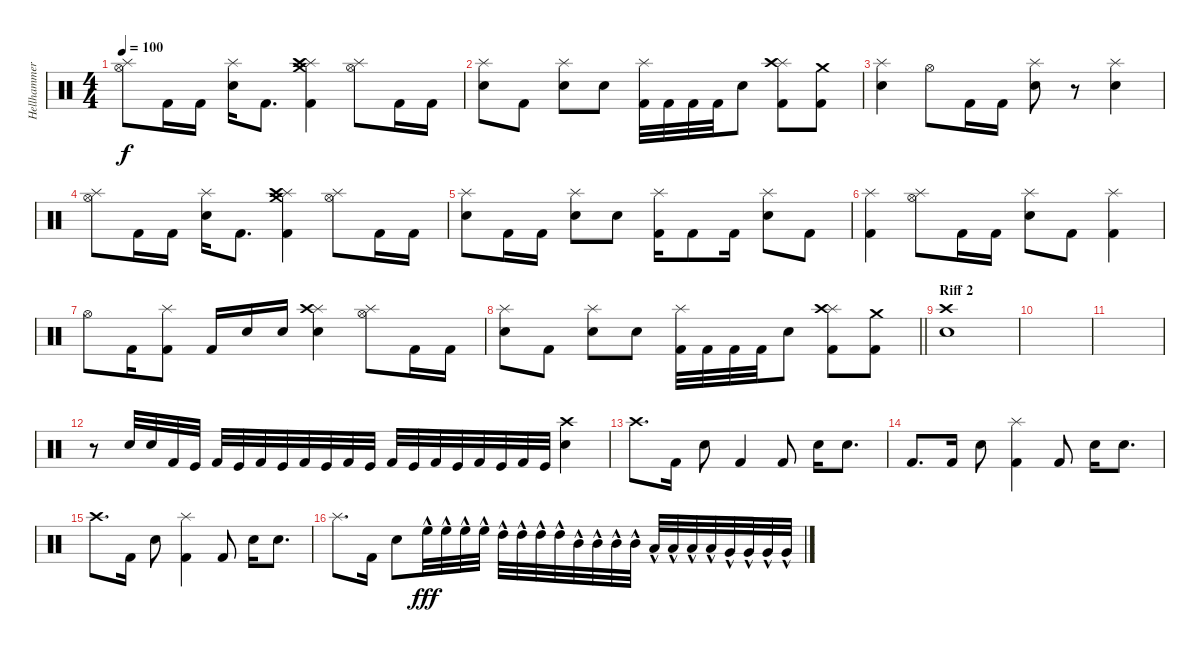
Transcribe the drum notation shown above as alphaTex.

\track ("Hellhammer" "Hellhammer") {instrument percussion}
\staff {score}
\articulation defaults
\ts (4 4)
\tempo 100
\clef neutral
\ks c
("Splash (hit)" "Hi-Hat (open)").8{dy f} "Kick (hit) 2".16 "Kick (hit) 2".16 ("Splash (hit)" "Snare (hit) 2").16 "Kick (hit) 2".8{d} ("Splash (hit)" "Crash medium (hit)" "Crash high (hit)" "Kick (hit) 2").4 ("Splash (hit)" "Hi-Hat (open)").8 "Kick (hit) 2".16 "Kick (hit) 2".16 |
("Splash (hit)" "Snare (hit) 2").8 "Kick (hit) 2".8 ("Splash (hit)" "Snare (hit) 2").8 "Snare (hit) 2".8 ("Splash (hit)" "Kick (hit) 2").32 "Kick (hit) 2".32 "Kick (hit) 2".32 "Kick (hit) 2".32 "Snare (hit) 2".8 ("Splash (hit)" "Crash high (hit)" "Kick (hit) 2").8 ("Crash medium (hit)" "Kick (hit) 2").8 |
("Splash (hit)" "Snare (hit) 2").4 "Hi-Hat (open)".8 "Kick (hit) 2".16 "Kick (hit) 2".16 ("Splash (hit)" "Snare (hit) 2").8 r.8 ("Splash (hit)" "Snare (hit) 2").4 |
("Splash (hit)" "Hi-Hat (open)").8 "Kick (hit) 2".16 "Kick (hit) 2".16 ("Splash (hit)" "Snare (hit) 2").16 "Kick (hit) 2".8{d} ("Splash (hit)" "Crash medium (hit)" "Crash high (hit)" "Kick (hit) 2").4 ("Splash (hit)" "Hi-Hat (open)").8 "Kick (hit) 2".16 "Kick (hit) 2".16 |
("Splash (hit)" "Snare (hit) 2").8 "Kick (hit) 2".16 "Kick (hit) 2".16 ("Splash (hit)" "Snare (hit) 2").8 "Snare (hit) 2".8 ("Splash (hit)" "Kick (hit) 2").16 "Kick (hit) 2".8 "Kick (hit) 2".16 ("Splash (hit)" "Snare (hit) 2").8 "Kick (hit) 2".8 |
("Splash (hit)" "Kick (hit) 2").4 ("Splash (hit)" "Hi-Hat (open)").8 "Kick (hit) 2".16 "Kick (hit) 2".16 ("Splash (hit)" "Snare (hit) 2").8 "Kick (hit) 2".8 ("Splash (hit)" "Kick (hit) 2").4 |
"Hi-Hat (open)".8 "Kick (hit) 2".16 ("Splash (hit)" "Kick (hit) 2").8 "Kick (hit) 2".16 "Snare (hit) 2".16 "Snare (hit) 2".16 ("Splash (hit)" "Crash high (hit)" "Snare (hit) 2").4 ("Splash (hit)" "Hi-Hat (open)").8 "Kick (hit) 2".16 "Kick (hit) 2".16 |
\barLineRight lightlight
("Splash (hit)" "Snare (hit) 2").8 "Kick (hit) 2".8 ("Splash (hit)" "Snare (hit) 2").8 "Snare (hit) 2".8 ("Splash (hit)" "Kick (hit) 2").32 "Kick (hit) 2".32 "Kick (hit) 2".32 "Kick (hit) 2".32 "Snare (hit) 2".8 ("Splash (hit)" "Crash high (hit)" "Kick (hit) 2").8 ("Crash medium (hit)" "Kick (hit) 2").8 |
\section ("" "Riff 2")
("Crash high (hit)" "Snare (hit) 2").1 |
|
|
r.8 "Snare (hit) 2".32 "Snare (hit) 2".32 "Kick (hit) 2".32 "Kick (hit)".32 "Kick (hit) 2".32 "Kick (hit)".32 "Kick (hit) 2".32 "Kick (hit)".32 "Kick (hit) 2".32 "Kick (hit)".32 "Kick (hit) 2".32 "Kick (hit)".32 "Kick (hit) 2".32 "Kick (hit)".32 "Kick (hit) 2".32 "Kick (hit)".32 "Kick (hit) 2".32 "Kick (hit)".32 "Kick (hit) 2".32 "Kick (hit)".32 ("Crash high (hit)" "Snare (hit) 2").4 |
"Crash high (hit)".8{d} "Kick (hit) 2".16 "Snare (hit) 2".8 "Kick (hit) 2".4 "Kick (hit) 2".8 "Snare (hit) 2".16 "Snare (hit) 2".8{d} |
"Kick (hit) 2".8{d} "Kick (hit) 2".16 "Snare (hit) 2".8 ("Splash (hit)" "Kick (hit) 2").4 "Kick (hit) 2".8 "Snare (hit) 2".16 "Snare (hit) 2".8{d} |
"Crash high (hit)".8{d} "Kick (hit) 2".16 "Snare (hit) 2".8 ("Splash (hit)" "Kick (hit) 2").4 "Kick (hit) 2".8 "Snare (hit) 2".16 "Snare (hit) 2".8{d} |
"Splash (hit)".8{d} "Kick (hit) 2".16 "Snare (hit) 2".8 "High Floor Tom (hit)"{hac}.32{dy fff} "High Floor Tom (hit)"{hac}.32 "High Floor Tom (hit)"{hac}.32 "High Floor Tom (hit)"{hac}.32 "High Tom (hit)"{hac}.32 "High Tom (hit)"{hac}.32 "High Tom (hit)"{hac}.32 "High Tom (hit)"{hac}.32 "Mid Tom (hit)"{hac}.32 "Mid Tom (hit)"{hac}.32 "Mid Tom (hit)"{hac}.32 "Mid Tom (hit)"{hac}.32 "Low Tom (hit)"{hac}.32 "Low Tom (hit)"{hac}.32 "Low Tom (hit)"{hac}.32 "Low Tom (hit)"{hac}.32 "Very Low Tom (hit)"{hac}.32 "Very Low Tom (hit)"{hac}.32 "Very Low Tom (hit)"{hac}.32 "Very Low Tom (hit)"{hac}.32
